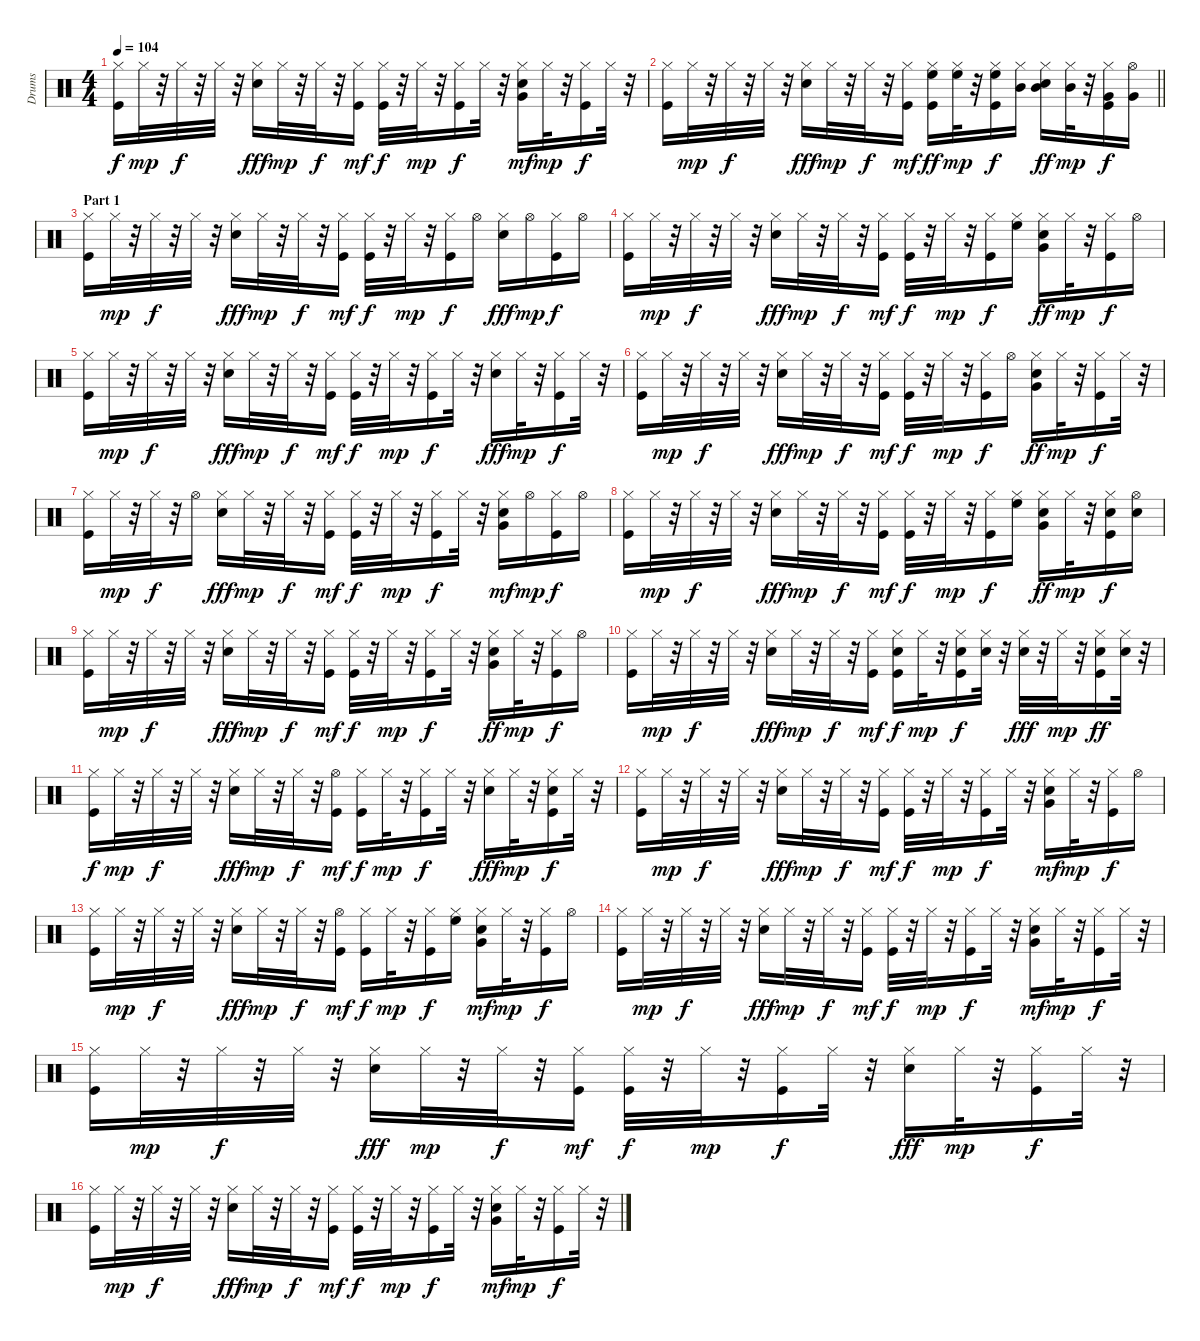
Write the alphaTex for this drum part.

\track ("Drums   " "Drums   ") {instrument percussion}
\staff {score}
\articulation defaults
\ts (4 4)
\tempo 104
\clef neutral
\ks c
("Kick (hit)" "Hi-Hat (closed)").16{dy f} "Hi-Hat (closed)".32{dy mp} r.32 "Hi-Hat (closed)".32{dy f} r.32 "Hi-Hat (closed)".32 r.32 ("Electric Snare (hit)" "Hi-Hat (closed)").16{dy fff} "Hi-Hat (closed)".32{dy mp} r.32 "Hi-Hat (closed)".32{dy f} r.32 ("Kick (hit)" "Hi-Hat (closed)").16{dy mf} ("Kick (hit)" "Hi-Hat (closed)").32{dy f} r.32 "Hi-Hat (closed)".32{dy mp} r.32 ("Kick (hit)" "Hi-Hat (closed)").16{dy f} "Hi-Hat (closed)".32 r.32 ("Electric Snare (hit)" "Hi-Hat (closed)" "Very Low Tom (hit)").16{dy mf} "Hi-Hat (closed)".32{dy mp} r.32 ("Kick (hit)" "Hi-Hat (closed)").16{dy f} "Hi-Hat (closed)".32 r.32 |
\barLineRight lightlight
("Kick (hit)" "Hi-Hat (closed)").16 "Hi-Hat (closed)".32{dy mp} r.32 "Hi-Hat (closed)".32{dy f} r.32 "Hi-Hat (closed)".32 r.32 ("Electric Snare (hit)" "Hi-Hat (closed)").16{dy fff} "Hi-Hat (closed)".32{dy mp} r.32 "Hi-Hat (closed)".32{dy f} r.32 ("Kick (hit)" "Hi-Hat (closed)").16{dy mf} ("Kick (hit)" "Hi-Hat (closed)" "High Floor Tom (hit)").16{dy ff} ("Hi-Hat (closed)" "High Floor Tom (hit)").32{dy mp} r.32 ("Kick (hit)" "Hi-Hat (closed)" "High Floor Tom (hit)").16{dy f} ("Hi-Hat (closed)" "Mid Tom (hit)").16 ("Electric Snare (hit)" "Hi-Hat (closed)" "Mid Tom (hit)").16{dy ff} ("Hi-Hat (closed)" "Mid Tom (hit)").32{dy mp} r.32 ("Kick (hit)" "Hi-Hat (closed)" "Very Low Tom (hit)").16{dy f} ("Very Low Tom (hit)" "Hi-Hat (open)").16 |
\section ("" "Part 1")
("Kick (hit)" "Hi-Hat (closed)").16 "Hi-Hat (closed)".32{dy mp} r.32 "Hi-Hat (closed)".32{dy f} r.32 "Hi-Hat (closed)".32 r.32 ("Electric Snare (hit)" "Hi-Hat (closed)").16{dy fff} "Hi-Hat (closed)".32{dy mp} r.32 "Hi-Hat (closed)".32{dy f} r.32 ("Kick (hit)" "Hi-Hat (closed)").16{dy mf} ("Kick (hit)" "Hi-Hat (closed)").32{dy f} r.32 "Hi-Hat (closed)".32{dy mp} r.32 ("Kick (hit)" "Hi-Hat (closed)").16{dy f} "Hi-Hat (open)".16 ("Electric Snare (hit)" "Hi-Hat (closed)").16{dy fff} "Hi-Hat (open)".16{dy mp} ("Kick (hit)" "Hi-Hat (closed)").16{dy f} "Hi-Hat (open)".16 |
("Kick (hit)" "Hi-Hat (closed)").16 "Hi-Hat (closed)".32{dy mp} r.32 "Hi-Hat (closed)".32{dy f} r.32 "Hi-Hat (closed)".32 r.32 ("Electric Snare (hit)" "Hi-Hat (closed)").16{dy fff} "Hi-Hat (closed)".32{dy mp} r.32 "Hi-Hat (closed)".32{dy f} r.32 ("Kick (hit)" "Hi-Hat (closed)").16{dy mf} ("Kick (hit)" "Hi-Hat (closed)").32{dy f} r.32 "Hi-Hat (closed)".32{dy mp} r.32 ("Kick (hit)" "Hi-Hat (closed)").16{dy f} ("Hi-Hat (closed)" "High Floor Tom (hit)").16 ("Electric Snare (hit)" "Hi-Hat (closed)" "Very Low Tom (hit)").16{dy ff} "Hi-Hat (closed)".32{dy mp} r.32 ("Kick (hit)" "Hi-Hat (closed)").16{dy f} "Hi-Hat (open)".16 |
("Kick (hit)" "Hi-Hat (closed)").16 "Hi-Hat (closed)".32{dy mp} r.32 "Hi-Hat (closed)".32{dy f} r.32 "Hi-Hat (closed)".32 r.32 ("Electric Snare (hit)" "Hi-Hat (closed)").16{dy fff} "Hi-Hat (closed)".32{dy mp} r.32 "Hi-Hat (closed)".32{dy f} r.32 ("Kick (hit)" "Hi-Hat (closed)").16{dy mf} ("Kick (hit)" "Hi-Hat (closed)").32{dy f} r.32 "Hi-Hat (closed)".32{dy mp} r.32 ("Kick (hit)" "Hi-Hat (closed)").16{dy f} "Hi-Hat (closed)".32 r.32 ("Electric Snare (hit)" "Hi-Hat (closed)").16{dy fff} "Hi-Hat (closed)".32{dy mp} r.32 ("Kick (hit)" "Hi-Hat (closed)").16{dy f} "Hi-Hat (closed)".32 r.32 |
("Kick (hit)" "Hi-Hat (closed)").16 "Hi-Hat (closed)".32{dy mp} r.32 "Hi-Hat (closed)".32{dy f} r.32 "Hi-Hat (closed)".32 r.32 ("Electric Snare (hit)" "Hi-Hat (closed)").16{dy fff} "Hi-Hat (closed)".32{dy mp} r.32 "Hi-Hat (closed)".32{dy f} r.32 ("Kick (hit)" "Hi-Hat (closed)").16{dy mf} ("Kick (hit)" "Hi-Hat (closed)").32{dy f} r.32 "Hi-Hat (closed)".32{dy mp} r.32 ("Kick (hit)" "Hi-Hat (closed)").16{dy f} "Hi-Hat (open)".16 ("Electric Snare (hit)" "Hi-Hat (closed)" "Very Low Tom (hit)").16{dy ff} "Hi-Hat (closed)".32{dy mp} r.32 ("Kick (hit)" "Hi-Hat (closed)").16{dy f} "Hi-Hat (closed)".32 r.32 |
("Kick (hit)" "Hi-Hat (closed)").16 "Hi-Hat (closed)".32{dy mp} r.32 "Hi-Hat (closed)".32{dy f} r.32 "Hi-Hat (open)".16 ("Electric Snare (hit)" "Hi-Hat (closed)").16{dy fff} "Hi-Hat (closed)".32{dy mp} r.32 "Hi-Hat (closed)".32{dy f} r.32 ("Kick (hit)" "Hi-Hat (closed)").16{dy mf} ("Kick (hit)" "Hi-Hat (closed)").32{dy f} r.32 "Hi-Hat (closed)".32{dy mp} r.32 ("Kick (hit)" "Hi-Hat (closed)").16{dy f} "Hi-Hat (closed)".32 r.32 ("Electric Snare (hit)" "Hi-Hat (closed)" "Very Low Tom (hit)").16{dy mf} "Hi-Hat (open)".16{dy mp} ("Kick (hit)" "Hi-Hat (closed)").16{dy f} "Hi-Hat (open)".16 |
("Kick (hit)" "Hi-Hat (closed)").16 "Hi-Hat (closed)".32{dy mp} r.32 "Hi-Hat (closed)".32{dy f} r.32 "Hi-Hat (closed)".32 r.32 ("Electric Snare (hit)" "Hi-Hat (closed)").16{dy fff} "Hi-Hat (closed)".32{dy mp} r.32 "Hi-Hat (closed)".32{dy f} r.32 ("Kick (hit)" "Hi-Hat (closed)").16{dy mf} ("Kick (hit)" "Hi-Hat (closed)").32{dy f} r.32 "Hi-Hat (closed)".32{dy mp} r.32 ("Kick (hit)" "Hi-Hat (closed)").16{dy f} ("Hi-Hat (closed)" "High Floor Tom (hit)").16 ("Electric Snare (hit)" "Hi-Hat (closed)" "Very Low Tom (hit)").16{dy ff} "Hi-Hat (closed)".32{dy mp} r.32 ("Kick (hit)" "Electric Snare (hit)" "Hi-Hat (closed)").16{dy f} ("Electric Snare (hit)" "Hi-Hat (open)").16 |
("Kick (hit)" "Hi-Hat (closed)").16 "Hi-Hat (closed)".32{dy mp} r.32 "Hi-Hat (closed)".32{dy f} r.32 "Hi-Hat (closed)".32 r.32 ("Electric Snare (hit)" "Hi-Hat (closed)").16{dy fff} "Hi-Hat (closed)".32{dy mp} r.32 "Hi-Hat (closed)".32{dy f} r.32 ("Kick (hit)" "Hi-Hat (closed)").16{dy mf} ("Kick (hit)" "Hi-Hat (closed)").32{dy f} r.32 "Hi-Hat (closed)".32{dy mp} r.32 ("Kick (hit)" "Hi-Hat (closed)").16{dy f} "Hi-Hat (closed)".32 r.32 ("Electric Snare (hit)" "Hi-Hat (closed)" "Very Low Tom (hit)").16{dy ff} "Hi-Hat (closed)".32{dy mp} r.32 ("Kick (hit)" "Hi-Hat (closed)").16{dy f} "Hi-Hat (open)".16 |
("Kick (hit)" "Hi-Hat (closed)").16 "Hi-Hat (closed)".32{dy mp} r.32 "Hi-Hat (closed)".32{dy f} r.32 "Hi-Hat (closed)".32 r.32 ("Electric Snare (hit)" "Hi-Hat (closed)").16{dy fff} "Hi-Hat (closed)".32{dy mp} r.32 "Hi-Hat (closed)".32{dy f} r.32 ("Kick (hit)" "Hi-Hat (closed)").16{dy mf} ("Kick (hit)" "Electric Snare (hit)" "Hi-Hat (closed)").16{dy f} "Hi-Hat (closed)".32{dy mp} r.32 ("Kick (hit)" "Electric Snare (hit)" "Hi-Hat (closed)").16{dy f} ("Electric Snare (hit)" "Hi-Hat (closed)").32 r.32 ("Electric Snare (hit)" "Hi-Hat (closed)").32{dy fff} r.32 "Hi-Hat (closed)".32{dy mp} r.32 ("Kick (hit)" "Electric Snare (hit)" "Hi-Hat (closed)").16{dy ff} ("Electric Snare (hit)" "Hi-Hat (closed)").32 r.32 |
("Kick (hit)" "Hi-Hat (closed)").16{dy f} "Hi-Hat (closed)".32{dy mp} r.32 "Hi-Hat (closed)".32{dy f} r.32 "Hi-Hat (closed)".32 r.32 ("Electric Snare (hit)" "Hi-Hat (closed)").16{dy fff} "Hi-Hat (closed)".32{dy mp} r.32 "Hi-Hat (closed)".32{dy f} r.32 ("Kick (hit)" "Hi-Hat (open)").16{dy mf} ("Kick (hit)" "Hi-Hat (closed)").16{dy f} "Hi-Hat (closed)".32{dy mp} r.32 ("Kick (hit)" "Hi-Hat (closed)").16{dy f} "Hi-Hat (closed)".32 r.32 ("Electric Snare (hit)" "Hi-Hat (closed)").16{dy fff} "Hi-Hat (closed)".32{dy mp} r.32 ("Kick (hit)" "Electric Snare (hit)" "Hi-Hat (closed)").16{dy f} "Hi-Hat (closed)".32 r.32 |
("Kick (hit)" "Hi-Hat (closed)").16 "Hi-Hat (closed)".32{dy mp} r.32 "Hi-Hat (closed)".32{dy f} r.32 "Hi-Hat (closed)".32 r.32 ("Electric Snare (hit)" "Hi-Hat (closed)").16{dy fff} "Hi-Hat (closed)".32{dy mp} r.32 "Hi-Hat (closed)".32{dy f} r.32 ("Kick (hit)" "Hi-Hat (closed)").16{dy mf} ("Kick (hit)" "Hi-Hat (closed)").32{dy f} r.32 "Hi-Hat (closed)".32{dy mp} r.32 ("Kick (hit)" "Hi-Hat (closed)").16{dy f} "Hi-Hat (closed)".32 r.32 ("Electric Snare (hit)" "Hi-Hat (closed)" "Very Low Tom (hit)").16{dy mf} "Hi-Hat (closed)".32{dy mp} r.32 ("Kick (hit)" "Hi-Hat (closed)").16{dy f} "Hi-Hat (open)".16 |
("Kick (hit)" "Hi-Hat (closed)").16 "Hi-Hat (closed)".32{dy mp} r.32 "Hi-Hat (closed)".32{dy f} r.32 "Hi-Hat (closed)".32 r.32 ("Electric Snare (hit)" "Hi-Hat (closed)").16{dy fff} "Hi-Hat (closed)".32{dy mp} r.32 "Hi-Hat (closed)".32{dy f} r.32 ("Kick (hit)" "Hi-Hat (open)").16{dy mf} ("Kick (hit)" "Hi-Hat (closed)").16{dy f} "Hi-Hat (closed)".32{dy mp} r.32 ("Kick (hit)" "Hi-Hat (closed)").16{dy f} ("Hi-Hat (closed)" "High Floor Tom (hit)").16 ("Electric Snare (hit)" "Hi-Hat (closed)" "Very Low Tom (hit)").16{dy mf} "Hi-Hat (closed)".32{dy mp} r.32 ("Kick (hit)" "Hi-Hat (closed)").16{dy f} "Hi-Hat (open)".16 |
("Kick (hit)" "Hi-Hat (closed)").16 "Hi-Hat (closed)".32{dy mp} r.32 "Hi-Hat (closed)".32{dy f} r.32 "Hi-Hat (closed)".32 r.32 ("Electric Snare (hit)" "Hi-Hat (closed)").16{dy fff} "Hi-Hat (closed)".32{dy mp} r.32 "Hi-Hat (closed)".32{dy f} r.32 ("Kick (hit)" "Hi-Hat (closed)").16{dy mf} ("Kick (hit)" "Hi-Hat (closed)").32{dy f} r.32 "Hi-Hat (closed)".32{dy mp} r.32 ("Kick (hit)" "Hi-Hat (closed)").16{dy f} "Hi-Hat (closed)".32 r.32 ("Electric Snare (hit)" "Hi-Hat (closed)" "Very Low Tom (hit)").16{dy mf} "Hi-Hat (closed)".32{dy mp} r.32 ("Kick (hit)" "Hi-Hat (closed)").16{dy f} "Hi-Hat (closed)".32 r.32 |
("Kick (hit)" "Hi-Hat (closed)").16 "Hi-Hat (closed)".32{dy mp} r.32 "Hi-Hat (closed)".32{dy f} r.32 "Hi-Hat (closed)".32 r.32 ("Electric Snare (hit)" "Hi-Hat (closed)").16{dy fff} "Hi-Hat (closed)".32{dy mp} r.32 "Hi-Hat (closed)".32{dy f} r.32 ("Kick (hit)" "Hi-Hat (closed)").16{dy mf} ("Kick (hit)" "Hi-Hat (closed)").32{dy f} r.32 "Hi-Hat (closed)".32{dy mp} r.32 ("Kick (hit)" "Hi-Hat (closed)").16{dy f} "Hi-Hat (closed)".32 r.32 ("Electric Snare (hit)" "Hi-Hat (closed)").16{dy fff} "Hi-Hat (closed)".32{dy mp} r.32 ("Kick (hit)" "Hi-Hat (closed)").16{dy f} "Hi-Hat (closed)".32 r.32 |
("Kick (hit)" "Hi-Hat (closed)").16 "Hi-Hat (closed)".32{dy mp} r.32 "Hi-Hat (closed)".32{dy f} r.32 "Hi-Hat (closed)".32 r.32 ("Electric Snare (hit)" "Hi-Hat (closed)").16{dy fff} "Hi-Hat (closed)".32{dy mp} r.32 "Hi-Hat (closed)".32{dy f} r.32 ("Kick (hit)" "Hi-Hat (closed)").16{dy mf} ("Kick (hit)" "Hi-Hat (closed)").32{dy f} r.32 "Hi-Hat (closed)".32{dy mp} r.32 ("Kick (hit)" "Hi-Hat (closed)").16{dy f} "Hi-Hat (closed)".32 r.32 ("Electric Snare (hit)" "Hi-Hat (closed)" "Very Low Tom (hit)").16{dy mf} "Hi-Hat (closed)".32{dy mp} r.32 ("Kick (hit)" "Hi-Hat (closed)").16{dy f} "Hi-Hat (closed)".32 r.32
